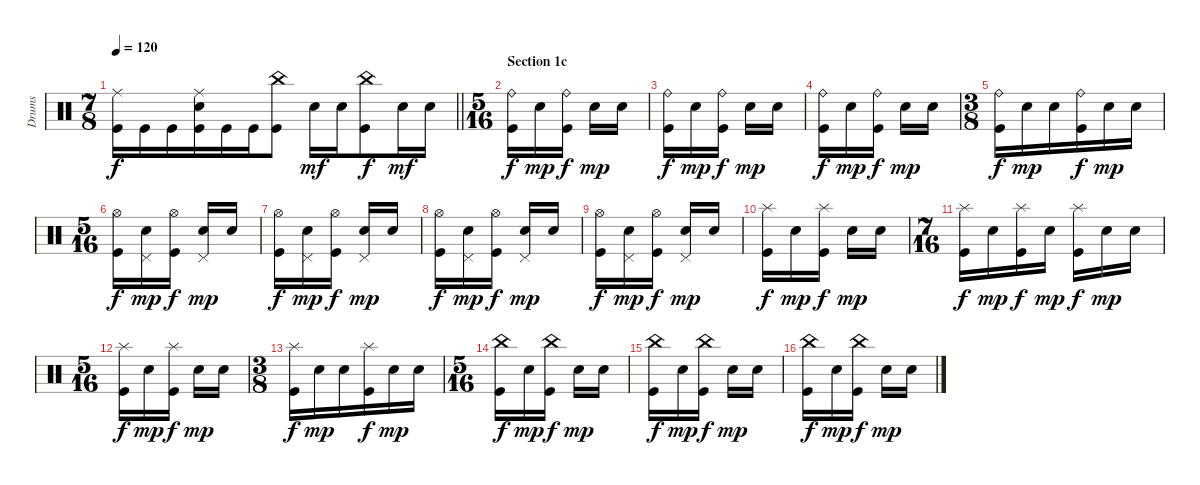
\track ("Drums" "Drums") {instrument percussion}
\staff {score}
\articulation defaults
\ts (7 8)
\tempo 120
\clef neutral
\barLineRight lightlight
\ks c
("Ride (middle)" "Kick (hit)").16{dy f} "Kick (hit)".16 "Kick (hit)".16 ("Ride (middle)" "Snare (hit) 2" "Kick (hit)").16 "Kick (hit)".16 "Kick (hit)".16 ("China (hit)" "Kick (hit)").8 "Snare (hit) 2".16{dy mf} "Snare (hit) 2".16 ("China (hit)" "Kick (hit)").8{dy f} "Snare (hit) 2".16{dy mf} "Snare (hit) 2".16 |
\ts (5 16)
\section ("" "Section 1c")
("Ride (bell)" "Kick (hit)").16{dy f} "Snare (hit) 2".16{dy mp} ("Ride (bell)" "Kick (hit)").16{dy f} "Snare (hit) 2".16{dy mp} "Snare (hit) 2".16 |
("Ride (bell)" "Kick (hit)").16{dy f} "Snare (hit) 2".16{dy mp} ("Ride (bell)" "Kick (hit)").16{dy f} "Snare (hit) 2".16{dy mp} "Snare (hit) 2".16 |
("Ride (bell)" "Kick (hit)").16{dy f} "Snare (hit) 2".16{dy mp} ("Ride (bell)" "Kick (hit)").16{dy f} "Snare (hit) 2".16{dy mp} "Snare (hit) 2".16 |
\ts (3 8)
("Ride (bell)" "Kick (hit)").16{dy f} "Snare (hit) 2".16{dy mp} "Snare (hit) 2".16 ("Ride (bell)" "Kick (hit)").16{dy f} "Snare (hit) 2".16{dy mp} "Snare (hit) 2".16 |
\ts (5 16)
("Hi-Hat (open)" "Kick (hit)").16{dy f} ("Pedal Hi-Hat (hit)" "Snare (hit) 2").16{dy mp} ("Hi-Hat (open)" "Kick (hit)").16{dy f} ("Pedal Hi-Hat (hit)" "Snare (hit) 2").16{dy mp} "Snare (hit) 2".16 |
("Hi-Hat (open)" "Kick (hit)").16{dy f} ("Pedal Hi-Hat (hit)" "Snare (hit) 2").16{dy mp} ("Hi-Hat (open)" "Kick (hit)").16{dy f} ("Pedal Hi-Hat (hit)" "Snare (hit) 2").16{dy mp} "Snare (hit) 2".16 |
("Hi-Hat (open)" "Kick (hit)").16{dy f} ("Pedal Hi-Hat (hit)" "Snare (hit) 2").16{dy mp} ("Hi-Hat (open)" "Kick (hit)").16{dy f} ("Pedal Hi-Hat (hit)" "Snare (hit) 2").16{dy mp} "Snare (hit) 2".16 |
("Hi-Hat (open)" "Kick (hit)").16{dy f} ("Pedal Hi-Hat (hit)" "Snare (hit) 2").16{dy mp} ("Hi-Hat (open)" "Kick (hit)").16{dy f} ("Pedal Hi-Hat (hit)" "Snare (hit) 2").16{dy mp} "Snare (hit) 2".16 |
("Splash (hit)" "Kick (hit)").16{dy f} "Snare (hit) 2".16{dy mp} ("Splash (hit)" "Kick (hit)").16{dy f} "Snare (hit) 2".16{dy mp} "Snare (hit) 2".16 |
\ts (7 16)
("Splash (hit)" "Kick (hit)").16{dy f} "Snare (hit) 2".16{dy mp} ("Splash (hit)" "Kick (hit)").16{dy f} "Snare (hit) 2".16{dy mp} ("Splash (hit)" "Kick (hit)").16{dy f} "Snare (hit) 2".16{dy mp} "Snare (hit) 2".16 |
\ts (5 16)
("Splash (hit)" "Kick (hit)").16{dy f} "Snare (hit) 2".16{dy mp} ("Splash (hit)" "Kick (hit)").16{dy f} "Snare (hit) 2".16{dy mp} "Snare (hit) 2".16 |
\ts (3 8)
("Splash (hit)" "Kick (hit)").16{dy f} "Snare (hit) 2".16{dy mp} "Snare (hit) 2".16 ("Splash (hit)" "Kick (hit)").16{dy f} "Snare (hit) 2".16{dy mp} "Snare (hit) 2".16 |
\ts (5 16)
("China (hit)" "Kick (hit)").16{dy f} "Snare (hit) 2".16{dy mp} ("China (hit)" "Kick (hit)").16{dy f} "Snare (hit) 2".16{dy mp} "Snare (hit) 2".16 |
("China (hit)" "Kick (hit)").16{dy f} "Snare (hit) 2".16{dy mp} ("China (hit)" "Kick (hit)").16{dy f} "Snare (hit) 2".16{dy mp} "Snare (hit) 2".16 |
("China (hit)" "Kick (hit)").16{dy f} "Snare (hit) 2".16{dy mp} ("China (hit)" "Kick (hit)").16{dy f} "Snare (hit) 2".16{dy mp} "Snare (hit) 2".16
